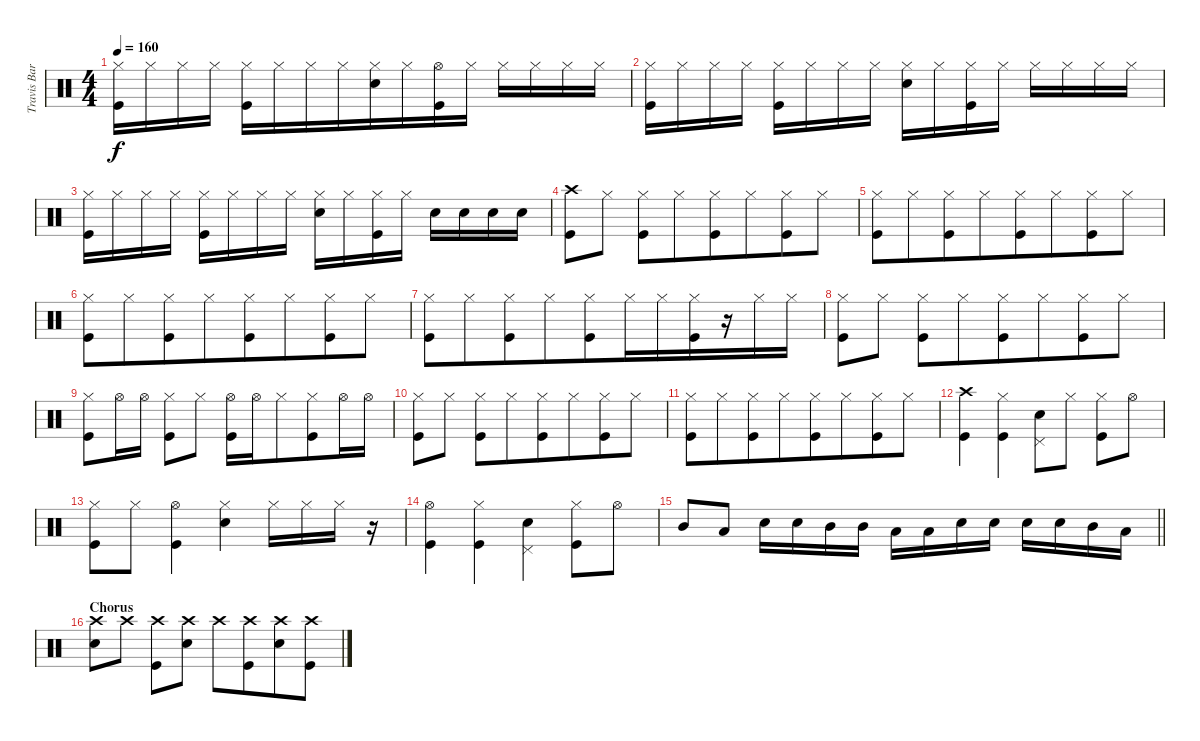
\track ("Travis Barker Drums" "Travis Bar") {instrument percussion}
\staff {score}
\articulation defaults
\ts (4 4)
\tempo 160
\clef neutral
\ks c
("Hi-Hat (closed)" "Kick (hit)").16{dy f} "Hi-Hat (closed)".16{beam merge} "Hi-Hat (closed)".16 "Hi-Hat (closed)".16 ("Hi-Hat (closed)" "Kick (hit)").16 "Hi-Hat (closed)".16{beam merge} "Hi-Hat (closed)".16 "Hi-Hat (closed)".16{beam merge} ("Hi-Hat (closed)" "Snare (hit) 2").16{beam merge} "Hi-Hat (closed)".16 ("Hi-Hat (open)" "Kick (hit)").16{beam merge} "Hi-Hat (closed)".16 "Hi-Hat (closed)".16{beam merge} "Hi-Hat (closed)".16{beam merge} "Hi-Hat (closed)".16{beam merge} "Hi-Hat (closed)".16 |
("Hi-Hat (closed)" "Kick (hit)").16{beam merge} "Hi-Hat (closed)".16{beam merge} "Hi-Hat (closed)".16{beam merge} "Hi-Hat (closed)".16 ("Hi-Hat (closed)" "Kick (hit)").16 "Hi-Hat (closed)".16{beam merge} "Hi-Hat (closed)".16{beam merge} "Hi-Hat (closed)".16 ("Hi-Hat (closed)" "Snare (hit) 2").16 "Hi-Hat (closed)".16 ("Hi-Hat (closed)" "Kick (hit)").16 "Hi-Hat (closed)".16 "Hi-Hat (closed)".16{beam merge} "Hi-Hat (closed)".16 "Hi-Hat (closed)".16 "Hi-Hat (closed)".16 |
("Hi-Hat (closed)" "Kick (hit)").16 "Hi-Hat (closed)".16{beam merge} "Hi-Hat (closed)".16 "Hi-Hat (closed)".16 ("Hi-Hat (closed)" "Kick (hit)").16 "Hi-Hat (closed)".16{beam merge} "Hi-Hat (closed)".16 "Hi-Hat (closed)".16 ("Hi-Hat (closed)" "Snare (hit) 2").16 "Hi-Hat (closed)".16 ("Hi-Hat (closed)" "Kick (hit)").16 "Hi-Hat (closed)".16 "Snare (hit) 2".16{beam merge} "Snare (hit) 2".16 "Snare (hit) 2".16 "Snare (hit) 2".16 |
("Crash high (hit)" "Kick (hit)").8{beam merge} "Hi-Hat (closed)".8 ("Kick (hit)" "Hi-Hat (closed)").8 "Hi-Hat (closed)".8{beam merge} ("Kick (hit)" "Hi-Hat (closed)").8 "Hi-Hat (closed)".8{beam merge} ("Kick (hit)" "Hi-Hat (closed)").8 "Hi-Hat (closed)".8 |
("Kick (hit)" "Hi-Hat (closed)").8 "Hi-Hat (closed)".8{beam merge} ("Kick (hit)" "Hi-Hat (closed)").8 "Hi-Hat (closed)".8{beam merge} ("Kick (hit)" "Hi-Hat (closed)").8 "Hi-Hat (closed)".8{beam merge} ("Kick (hit)" "Hi-Hat (closed)").8 "Hi-Hat (closed)".8 |
("Kick (hit)" "Hi-Hat (closed)").8 "Hi-Hat (closed)".8{beam merge} ("Kick (hit)" "Hi-Hat (closed)").8 "Hi-Hat (closed)".8{beam merge} ("Kick (hit)" "Hi-Hat (closed)").8 "Hi-Hat (closed)".8{beam merge} ("Kick (hit)" "Hi-Hat (closed)").8 "Hi-Hat (closed)".8 |
("Kick (hit)" "Hi-Hat (closed)").8 "Hi-Hat (closed)".8{beam merge} ("Kick (hit)" "Hi-Hat (closed)").8 "Hi-Hat (closed)".8{beam merge} ("Kick (hit)" "Hi-Hat (closed)").8 "Hi-Hat (closed)".16 "Hi-Hat (closed)".16{beam merge} ("Kick (hit)" "Hi-Hat (closed)").16 r.16 "Hi-Hat (closed)".16 "Hi-Hat (closed)".16 |
("Hi-Hat (closed)" "Kick (hit)").8{beam merge} "Hi-Hat (closed)".8 ("Kick (hit)" "Hi-Hat (closed)").8 "Hi-Hat (closed)".8{beam merge} ("Kick (hit)" "Hi-Hat (closed)").8 "Hi-Hat (closed)".8{beam merge} ("Kick (hit)" "Hi-Hat (closed)").8 "Hi-Hat (closed)".8 |
("Kick (hit)" "Hi-Hat (closed)").8 "Hi-Hat (open)".16{beam merge} "Hi-Hat (open)".16 ("Kick (hit)" "Hi-Hat (closed)").8 "Hi-Hat (closed)".8 ("Kick (hit)" "Hi-Hat (open)").16 "Hi-Hat (open)".16 "Hi-Hat (closed)".8{beam merge} ("Kick (hit)" "Hi-Hat (closed)").8{beam merge} "Hi-Hat (open)".16 "Hi-Hat (open)".16 |
("Hi-Hat (closed)" "Kick (hit)").8{beam merge} "Hi-Hat (closed)".8 ("Kick (hit)" "Hi-Hat (closed)").8 "Hi-Hat (closed)".8{beam merge} ("Kick (hit)" "Hi-Hat (closed)").8 "Hi-Hat (closed)".8{beam merge} ("Kick (hit)" "Hi-Hat (closed)").8 "Hi-Hat (closed)".8 |
("Kick (hit)" "Hi-Hat (closed)").8 "Hi-Hat (closed)".8{beam merge} ("Kick (hit)" "Hi-Hat (closed)").8 "Hi-Hat (closed)".8{beam merge} ("Kick (hit)" "Hi-Hat (closed)").8 "Hi-Hat (closed)".8{beam merge} ("Kick (hit)" "Hi-Hat (closed)").8 "Hi-Hat (closed)".8 |
("Kick (hit)" "Crash high (hit)").4 ("Hi-Hat (closed)" "Kick (hit)").4{beam merge} ("Pedal Hi-Hat (hit)" "Snare (hit) 2").8{beam merge} "Hi-Hat (closed)".8 ("Hi-Hat (closed)" "Kick (hit)").8 "Hi-Hat (open)".8 |
("Hi-Hat (closed)" "Kick (hit)").8{beam merge} "Hi-Hat (closed)".8{beam merge} ("Hi-Hat (open)" "Kick (hit)").4 ("Snare (hit) 2" "Hi-Hat (closed)").4{beam merge} "Hi-Hat (closed)".16 "Hi-Hat (closed)".16 "Hi-Hat (closed)".16 r.16 |
("Kick (hit)" "Hi-Hat (open)").4 ("Hi-Hat (closed)" "Kick (hit)").4{beam merge} ("Pedal Hi-Hat (hit)" "Snare (hit) 2").4{beam merge} ("Kick (hit)" "Hi-Hat (closed)").8 "Hi-Hat (open)".8 |
\barLineRight lightlight "Mid Tom (hit)".8 "Low Tom (hit)".8 "Snare (hit) 2".16{beam merge} "Snare (hit) 2".16 "Mid Tom (hit)".16{beam merge} "Mid Tom (hit)".16 "Low Tom (hit)".16 "Low Tom (hit)".16{beam merge} "Snare (hit) 2".16 "Snare (hit) 2".16 "Snare (hit) 2".16 "Snare (hit) 2".16 "Mid Tom (hit)".16 "Low Tom (hit)".16
|
\section ("" "Chorus")
("Snare (hit) 2" "Crash high (hit)").8{beam merge} "Crash high (hit)".8 ("Kick (hit)" "Crash high (hit)").8 ("Snare (hit) 2" "Crash high (hit)").8 "Crash high (hit)".8{beam merge} ("Kick (hit)" "Crash high (hit)").8{beam merge} ("Snare (hit) 2" "Crash high (hit)").8{beam merge} ("Kick (hit)" "Crash high (hit)").8
